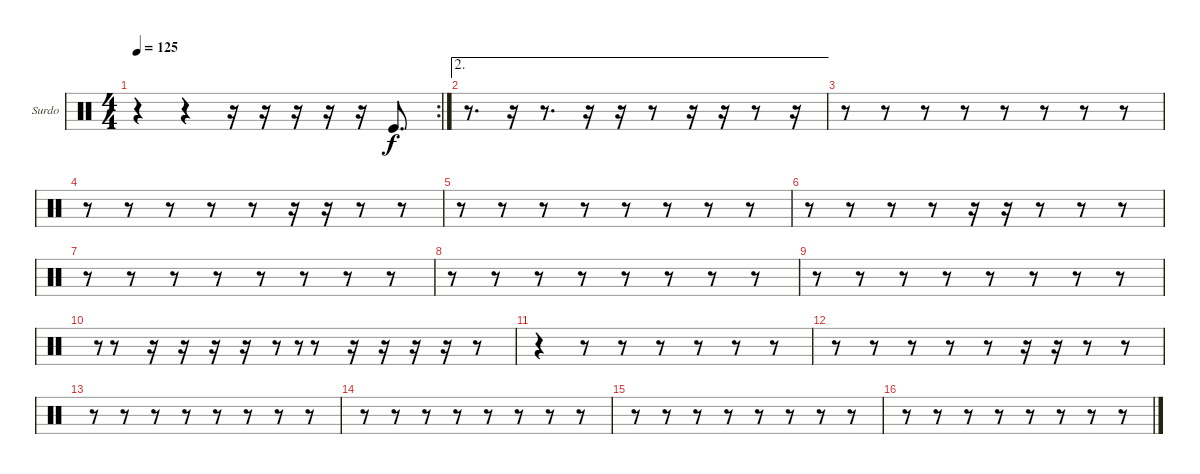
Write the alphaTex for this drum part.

\bracketExtendMode groupsimilarinstruments
\firstSystemTrackNameOrientation horizontal
\otherSystemsTrackNameOrientation horizontal
\track ("Surdo" "Surdo") {instrument percussion}
\staff {score}
\articulation defaults
\rc 2
\ts (4 4)
\tempo 125
\clef neutral
\ks c
r.4{dy f} r.4 r.16 r.16 r.16 r.16 r.16 "Kick (hit)".8{d} |
\ae 2
r.8{d} r.16 r.8{d} r.16 r.16 r.8 r.16 r.16 r.8 r.16 |
r.8 r.8 r.8 r.8 r.8 r.8 r.8 r.8 |
r.8 r.8 r.8 r.8 r.8 r.16 r.16 r.8 r.8 |
r.8 r.8 r.8 r.8 r.8 r.8 r.8 r.8 |
r.8 r.8 r.8 r.8 r.16 r.16 r.8 r.8 r.8 |
r.8 r.8 r.8 r.8 r.8 r.8 r.8 r.8 |
r.8 r.8 r.8 r.8 r.8 r.8 r.8 r.8 |
r.8 r.8 r.8 r.8 r.8 r.8 r.8 r.8 |
r.8{gr} r.8 r.16 r.16 r.16 r.16 r.8 r.8{gr} r.8 r.16 r.16 r.16 r.16 r.8 |
r.4 r.8 r.8 r.8 r.8 r.8 r.8 |
r.8 r.8 r.8 r.8 r.8 r.16 r.16 r.8 r.8 |
r.8 r.8 r.8 r.8 r.8 r.8 r.8 r.8 |
r.8 r.8 r.8 r.8 r.8 r.8 r.8 r.8 |
r.8 r.8 r.8 r.8 r.8 r.8 r.8 r.8 |
r.8 r.8 r.8 r.8 r.8 r.8 r.8 r.8
